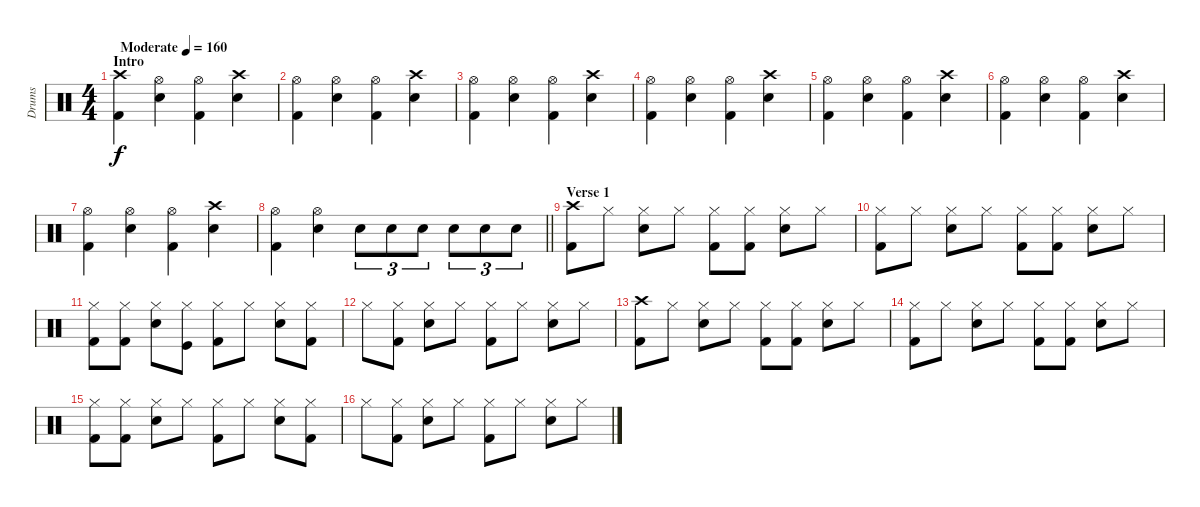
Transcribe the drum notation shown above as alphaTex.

\track ("Drums" "Drums") {instrument percussion}
\staff {score}
\articulation defaults
\ts (4 4)
\section ("" "Intro")
\tempo (160 "Moderate")
\clef neutral
\ks c
("Crash high (hit)" "Kick (hit) 2").4{dy f} ("Hi-Hat (open)" "Electric Snare (hit)").4 ("Hi-Hat (open)" "Kick (hit) 2").4 ("Crash high (hit)" "Electric Snare (hit)").4 |
("Hi-Hat (open)" "Kick (hit) 2").4 ("Hi-Hat (open)" "Electric Snare (hit)").4 ("Hi-Hat (open)" "Kick (hit) 2").4 ("Crash high (hit)" "Electric Snare (hit)").4 |
("Hi-Hat (open)" "Kick (hit) 2").4 ("Hi-Hat (open)" "Electric Snare (hit)").4 ("Hi-Hat (open)" "Kick (hit) 2").4 ("Crash high (hit)" "Electric Snare (hit)").4 |
("Hi-Hat (open)" "Kick (hit) 2").4 ("Hi-Hat (open)" "Electric Snare (hit)").4 ("Hi-Hat (open)" "Kick (hit) 2").4 ("Crash high (hit)" "Electric Snare (hit)").4 |
("Hi-Hat (open)" "Kick (hit) 2").4 ("Hi-Hat (open)" "Electric Snare (hit)").4 ("Hi-Hat (open)" "Kick (hit) 2").4 ("Crash high (hit)" "Electric Snare (hit)").4 |
("Hi-Hat (open)" "Kick (hit) 2").4 ("Hi-Hat (open)" "Electric Snare (hit)").4 ("Hi-Hat (open)" "Kick (hit) 2").4 ("Crash high (hit)" "Electric Snare (hit)").4 |
("Hi-Hat (open)" "Kick (hit) 2").4 ("Hi-Hat (open)" "Electric Snare (hit)").4 ("Hi-Hat (open)" "Kick (hit) 2").4 ("Crash high (hit)" "Electric Snare (hit)").4 |
\barLineRight lightlight
("Hi-Hat (open)" "Kick (hit) 2").4 ("Hi-Hat (open)" "Electric Snare (hit)").4 "Electric Snare (hit)".8{tu (3 2)} "Electric Snare (hit)".8{tu (3 2)} "Electric Snare (hit)".8{tu (3 2)} "Electric Snare (hit)".8{tu (3 2)} "Electric Snare (hit)".8{tu (3 2)} "Electric Snare (hit)".8{tu (3 2)} |
\section ("" "Verse 1")
("Crash high (hit)" "Kick (hit) 2").8 "Hi-Hat (closed)".8 ("Hi-Hat (closed)" "Electric Snare (hit)").8 "Hi-Hat (closed)".8 ("Hi-Hat (closed)" "Kick (hit) 2").8 ("Hi-Hat (closed)" "Kick (hit) 2").8 ("Hi-Hat (closed)" "Electric Snare (hit)").8 "Hi-Hat (closed)".8 |
("Hi-Hat (closed)" "Kick (hit) 2").8 "Hi-Hat (closed)".8 ("Hi-Hat (closed)" "Electric Snare (hit)").8 "Hi-Hat (closed)".8 ("Hi-Hat (closed)" "Kick (hit) 2").8 ("Hi-Hat (closed)" "Kick (hit) 2").8 ("Hi-Hat (closed)" "Electric Snare (hit)").8 "Hi-Hat (closed)".8 |
("Hi-Hat (closed)" "Kick (hit) 2").8 ("Hi-Hat (closed)" "Kick (hit) 2").8 ("Hi-Hat (closed)" "Electric Snare (hit)").8 ("Kick (hit)" "Hi-Hat (closed)").8 ("Hi-Hat (closed)" "Kick (hit) 2").8 "Hi-Hat (closed)".8 ("Hi-Hat (closed)" "Electric Snare (hit)").8 ("Hi-Hat (closed)" "Kick (hit) 2").8 |
"Hi-Hat (closed)".8 ("Hi-Hat (closed)" "Kick (hit) 2").8 ("Hi-Hat (closed)" "Electric Snare (hit)").8 "Hi-Hat (closed)".8 ("Hi-Hat (closed)" "Kick (hit) 2").8 "Hi-Hat (closed)".8 ("Hi-Hat (closed)" "Electric Snare (hit)").8 "Hi-Hat (closed)".8 |
("Crash high (hit)" "Kick (hit) 2").8 "Hi-Hat (closed)".8 ("Hi-Hat (closed)" "Electric Snare (hit)").8 "Hi-Hat (closed)".8 ("Hi-Hat (closed)" "Kick (hit) 2").8 ("Hi-Hat (closed)" "Kick (hit) 2").8 ("Hi-Hat (closed)" "Electric Snare (hit)").8 "Hi-Hat (closed)".8 |
("Hi-Hat (closed)" "Kick (hit) 2").8 "Hi-Hat (closed)".8 ("Hi-Hat (closed)" "Electric Snare (hit)").8 "Hi-Hat (closed)".8 ("Hi-Hat (closed)" "Kick (hit) 2").8 ("Hi-Hat (closed)" "Kick (hit) 2").8 ("Hi-Hat (closed)" "Electric Snare (hit)").8 "Hi-Hat (closed)".8 |
("Hi-Hat (closed)" "Kick (hit) 2").8 ("Hi-Hat (closed)" "Kick (hit) 2").8 ("Hi-Hat (closed)" "Electric Snare (hit)").8 "Hi-Hat (closed)".8 ("Hi-Hat (closed)" "Kick (hit) 2").8 "Hi-Hat (closed)".8 ("Hi-Hat (closed)" "Electric Snare (hit)").8 ("Hi-Hat (closed)" "Kick (hit) 2").8 |
"Hi-Hat (closed)".8 ("Hi-Hat (closed)" "Kick (hit) 2").8 ("Hi-Hat (closed)" "Electric Snare (hit)").8 "Hi-Hat (closed)".8 ("Hi-Hat (closed)" "Kick (hit) 2").8 "Hi-Hat (closed)".8 ("Hi-Hat (closed)" "Electric Snare (hit)").8 "Hi-Hat (closed)".8
